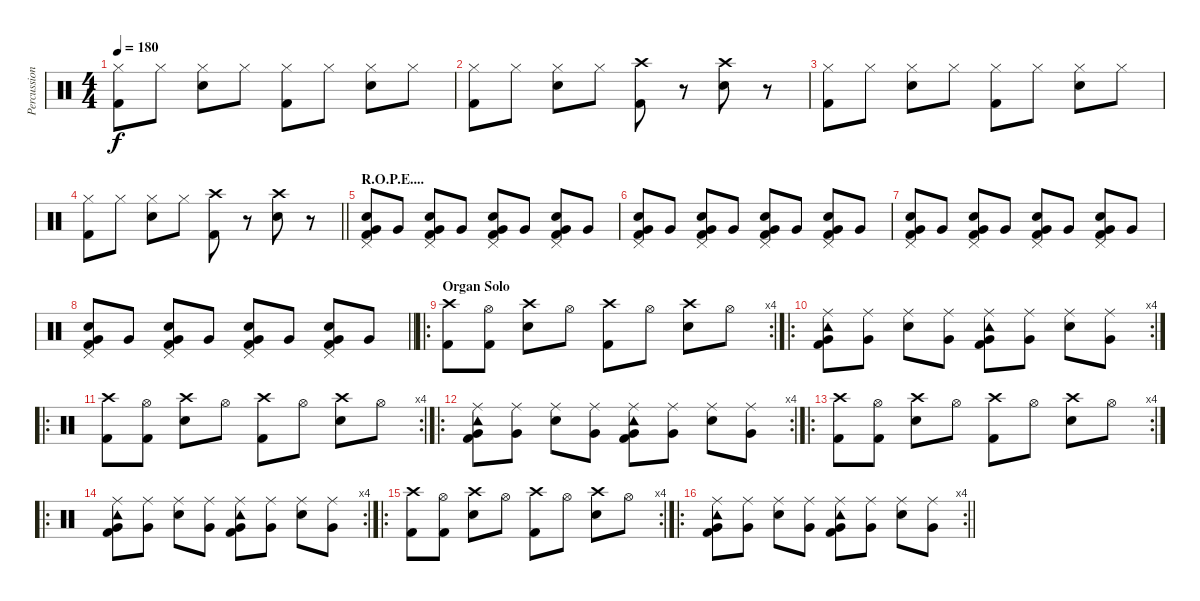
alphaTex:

\track ("Percussion" "Percussion") {instrument percussion}
\staff {score}
\articulation defaults
\ts (4 4)
\tempo 180
\clef neutral
\ks c
("Hi-Hat (closed)" "Kick (hit) 2").8{dy f} "Hi-Hat (closed)".8 ("Hi-Hat (closed)" "Electric Snare (hit)").8 "Hi-Hat (closed)".8 ("Hi-Hat (closed)" "Kick (hit) 2").8 "Hi-Hat (closed)".8 ("Hi-Hat (closed)" "Electric Snare (hit)").8 "Hi-Hat (closed)".8 |
("Hi-Hat (closed)" "Kick (hit) 2").8 "Hi-Hat (closed)".8 ("Hi-Hat (closed)" "Electric Snare (hit)").8 "Hi-Hat (closed)".8 ("Crash high (hit)" "Kick (hit) 2").8 r.8 ("Crash high (hit)" "Electric Snare (hit)").8 r.8 |
("Hi-Hat (closed)" "Kick (hit) 2").8 "Hi-Hat (closed)".8 ("Hi-Hat (closed)" "Electric Snare (hit)").8 "Hi-Hat (closed)".8 ("Hi-Hat (closed)" "Kick (hit) 2").8 "Hi-Hat (closed)".8 ("Hi-Hat (closed)" "Electric Snare (hit)").8 "Hi-Hat (closed)".8 |
\barLineRight lightlight
("Hi-Hat (closed)" "Kick (hit) 2").8 "Hi-Hat (closed)".8 ("Hi-Hat (closed)" "Electric Snare (hit)").8 "Hi-Hat (closed)".8 ("Crash high (hit)" "Kick (hit) 2").8 r.8 ("Crash high (hit)" "Electric Snare (hit)").8 r.8 |
\section ("" "R.O.P.E....")
("Pedal Hi-Hat (hit)" "Very Low Tom (hit)" "Electric Snare (hit)" "Kick (hit) 2").8 "Very Low Tom (hit)".8 ("Pedal Hi-Hat (hit)" "Very Low Tom (hit)" "Electric Snare (hit)" "Kick (hit) 2").8 "Very Low Tom (hit)".8 ("Pedal Hi-Hat (hit)" "Very Low Tom (hit)" "Electric Snare (hit)" "Kick (hit) 2").8 "Very Low Tom (hit)".8 ("Pedal Hi-Hat (hit)" "Very Low Tom (hit)" "Electric Snare (hit)" "Kick (hit) 2").8 "Very Low Tom (hit)".8 |
("Pedal Hi-Hat (hit)" "Very Low Tom (hit)" "Electric Snare (hit)" "Kick (hit) 2").8 "Very Low Tom (hit)".8 ("Pedal Hi-Hat (hit)" "Very Low Tom (hit)" "Electric Snare (hit)" "Kick (hit) 2").8 "Very Low Tom (hit)".8 ("Pedal Hi-Hat (hit)" "Very Low Tom (hit)" "Electric Snare (hit)" "Kick (hit) 2").8 "Very Low Tom (hit)".8 ("Pedal Hi-Hat (hit)" "Very Low Tom (hit)" "Electric Snare (hit)" "Kick (hit) 2").8 "Very Low Tom (hit)".8 |
("Pedal Hi-Hat (hit)" "Very Low Tom (hit)" "Electric Snare (hit)" "Kick (hit) 2").8 "Very Low Tom (hit)".8 ("Pedal Hi-Hat (hit)" "Very Low Tom (hit)" "Electric Snare (hit)" "Kick (hit) 2").8 "Very Low Tom (hit)".8 ("Pedal Hi-Hat (hit)" "Very Low Tom (hit)" "Electric Snare (hit)" "Kick (hit) 2").8 "Very Low Tom (hit)".8 ("Pedal Hi-Hat (hit)" "Very Low Tom (hit)" "Electric Snare (hit)" "Kick (hit) 2").8 "Very Low Tom (hit)".8 |
\barLineRight lightlight
("Pedal Hi-Hat (hit)" "Very Low Tom (hit)" "Electric Snare (hit)" "Kick (hit) 2").8 "Very Low Tom (hit)".8 ("Pedal Hi-Hat (hit)" "Very Low Tom (hit)" "Electric Snare (hit)" "Kick (hit) 2").8 "Very Low Tom (hit)".8 ("Pedal Hi-Hat (hit)" "Very Low Tom (hit)" "Electric Snare (hit)" "Kick (hit) 2").8 "Very Low Tom (hit)".8 ("Pedal Hi-Hat (hit)" "Very Low Tom (hit)" "Electric Snare (hit)" "Kick (hit) 2").8 "Very Low Tom (hit)".8 |
\ro
\rc 4
\section ("" "Organ Solo")
("Crash high (hit)" "Kick (hit) 2").8 ("Hi-Hat (open)" "Kick (hit) 2").8 ("Crash high (hit)" "Electric Snare (hit)").8 "Hi-Hat (open)".8 ("Crash high (hit)" "Kick (hit) 2").8 "Hi-Hat (open)".8 ("Crash high (hit)" "Electric Snare (hit)").8 "Hi-Hat (open)".8 |
\ro
\rc 4
("Ride (middle)" "Tambourine (hit)" "Very Low Tom (hit)" "Kick (hit) 2").8 ("Ride (middle)" "Very Low Tom (hit)").8 ("Ride (middle)" "Electric Snare (hit)").8 ("Ride (middle)" "Very Low Tom (hit)").8 ("Ride (middle)" "Tambourine (hit)" "Very Low Tom (hit)" "Kick (hit) 2").8 ("Ride (middle)" "Very Low Tom (hit)").8 ("Ride (middle)" "Electric Snare (hit)").8 ("Ride (middle)" "Very Low Tom (hit)").8 |
\ro
\rc 4
("Crash high (hit)" "Kick (hit) 2").8 ("Hi-Hat (open)" "Kick (hit) 2").8 ("Crash high (hit)" "Electric Snare (hit)").8 "Hi-Hat (open)".8 ("Crash high (hit)" "Kick (hit) 2").8 "Hi-Hat (open)".8 ("Crash high (hit)" "Electric Snare (hit)").8 "Hi-Hat (open)".8 |
\ro
\rc 4
("Ride (middle)" "Tambourine (hit)" "Very Low Tom (hit)" "Kick (hit) 2").8 ("Ride (middle)" "Very Low Tom (hit)").8 ("Ride (middle)" "Electric Snare (hit)").8 ("Ride (middle)" "Very Low Tom (hit)").8 ("Ride (middle)" "Tambourine (hit)" "Very Low Tom (hit)" "Kick (hit) 2").8 ("Ride (middle)" "Very Low Tom (hit)").8 ("Ride (middle)" "Electric Snare (hit)").8 ("Ride (middle)" "Very Low Tom (hit)").8 |
\ro
\rc 4
("Crash high (hit)" "Kick (hit) 2").8 ("Hi-Hat (open)" "Kick (hit) 2").8 ("Crash high (hit)" "Electric Snare (hit)").8 "Hi-Hat (open)".8 ("Crash high (hit)" "Kick (hit) 2").8 "Hi-Hat (open)".8 ("Crash high (hit)" "Electric Snare (hit)").8 "Hi-Hat (open)".8 |
\ro
\rc 4
("Ride (middle)" "Tambourine (hit)" "Very Low Tom (hit)" "Kick (hit) 2").8 ("Ride (middle)" "Very Low Tom (hit)").8 ("Ride (middle)" "Electric Snare (hit)").8 ("Ride (middle)" "Very Low Tom (hit)").8 ("Ride (middle)" "Tambourine (hit)" "Very Low Tom (hit)" "Kick (hit) 2").8 ("Ride (middle)" "Very Low Tom (hit)").8 ("Ride (middle)" "Electric Snare (hit)").8 ("Ride (middle)" "Very Low Tom (hit)").8 |
\ro
\rc 4
("Crash high (hit)" "Kick (hit) 2").8 ("Hi-Hat (open)" "Kick (hit) 2").8 ("Crash high (hit)" "Electric Snare (hit)").8 "Hi-Hat (open)".8 ("Crash high (hit)" "Kick (hit) 2").8 "Hi-Hat (open)".8 ("Crash high (hit)" "Electric Snare (hit)").8 "Hi-Hat (open)".8 |
\ro
\rc 4
\barLineRight lightlight
("Ride (middle)" "Tambourine (hit)" "Very Low Tom (hit)" "Kick (hit) 2").8 ("Ride (middle)" "Very Low Tom (hit)").8 ("Ride (middle)" "Electric Snare (hit)").8 ("Ride (middle)" "Very Low Tom (hit)").8 ("Ride (middle)" "Tambourine (hit)" "Very Low Tom (hit)" "Kick (hit) 2").8 ("Ride (middle)" "Very Low Tom (hit)").8 ("Ride (middle)" "Electric Snare (hit)").8 ("Ride (middle)" "Very Low Tom (hit)").8
